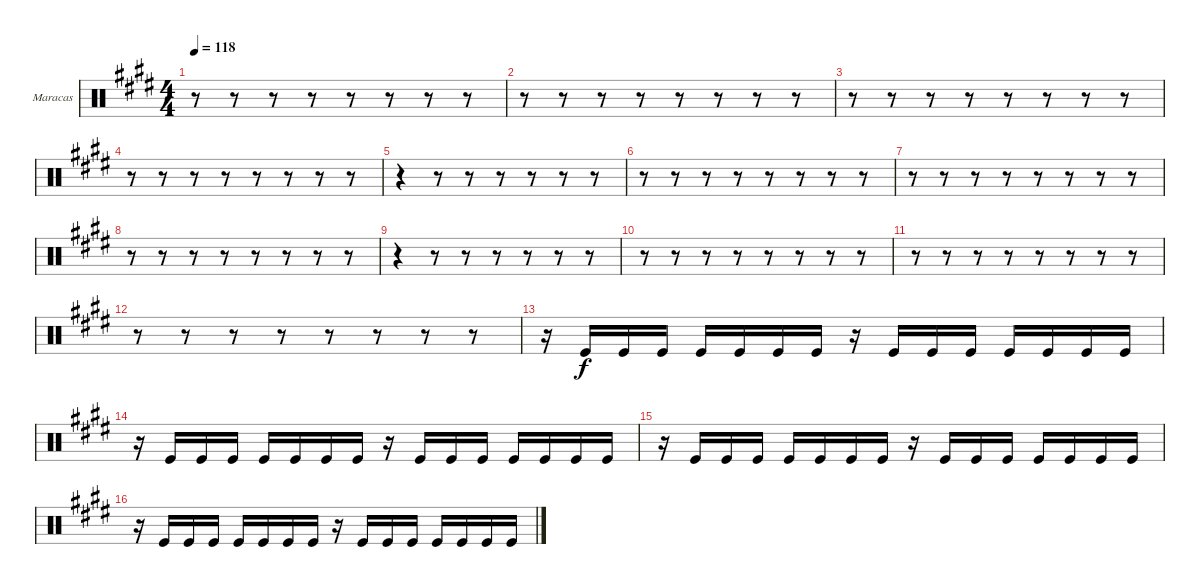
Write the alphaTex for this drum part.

\bracketExtendMode groupsimilarinstruments
\firstSystemTrackNameOrientation horizontal
\otherSystemsTrackNameOrientation horizontal
\track ("Maracas" "Maracas") {instrument percussion}
\staff {score}
\articulation defaults
\ts (4 4)
\tempo 118
\clef neutral
\ks e
r.8{dy f} r.8 r.8 r.8 r.8 r.8 r.8 r.8 |
r.8 r.8 r.8 r.8 r.8 r.8 r.8 r.8 |
r.8 r.8 r.8 r.8 r.8 r.8 r.8 r.8 |
r.8 r.8 r.8 r.8 r.8 r.8 r.8 r.8 |
r.4 r.8 r.8 r.8 r.8 r.8 r.8 |
r.8 r.8 r.8 r.8 r.8 r.8 r.8 r.8 |
r.8 r.8 r.8 r.8 r.8 r.8 r.8 r.8 |
r.8 r.8 r.8 r.8 r.8 r.8 r.8 r.8 |
r.4 r.8 r.8 r.8 r.8 r.8 r.8 |
r.8 r.8 r.8 r.8 r.8 r.8 r.8 r.8 |
r.8 r.8 r.8 r.8 r.8 r.8 r.8 r.8 |
r.8 r.8 r.8 r.8 r.8 r.8 r.8 r.8 |
r.16 "Kick (hit)".16 "Kick (hit)".16 "Kick (hit)".16 "Kick (hit)".16 "Kick (hit)".16 "Kick (hit)".16 "Kick (hit)".16 r.16 "Kick (hit)".16 "Kick (hit)".16 "Kick (hit)".16 "Kick (hit)".16 "Kick (hit)".16 "Kick (hit)".16 "Kick (hit)".16 |
r.16 "Kick (hit)".16 "Kick (hit)".16 "Kick (hit)".16 "Kick (hit)".16 "Kick (hit)".16 "Kick (hit)".16 "Kick (hit)".16 r.16 "Kick (hit)".16 "Kick (hit)".16 "Kick (hit)".16 "Kick (hit)".16 "Kick (hit)".16 "Kick (hit)".16 "Kick (hit)".16 |
r.16 "Kick (hit)".16 "Kick (hit)".16 "Kick (hit)".16 "Kick (hit)".16 "Kick (hit)".16 "Kick (hit)".16 "Kick (hit)".16 r.16 "Kick (hit)".16 "Kick (hit)".16 "Kick (hit)".16 "Kick (hit)".16 "Kick (hit)".16 "Kick (hit)".16 "Kick (hit)".16 |
r.16 "Kick (hit)".16 "Kick (hit)".16 "Kick (hit)".16 "Kick (hit)".16 "Kick (hit)".16 "Kick (hit)".16 "Kick (hit)".16 r.16 "Kick (hit)".16 "Kick (hit)".16 "Kick (hit)".16 "Kick (hit)".16 "Kick (hit)".16 "Kick (hit)".16 "Kick (hit)".16
